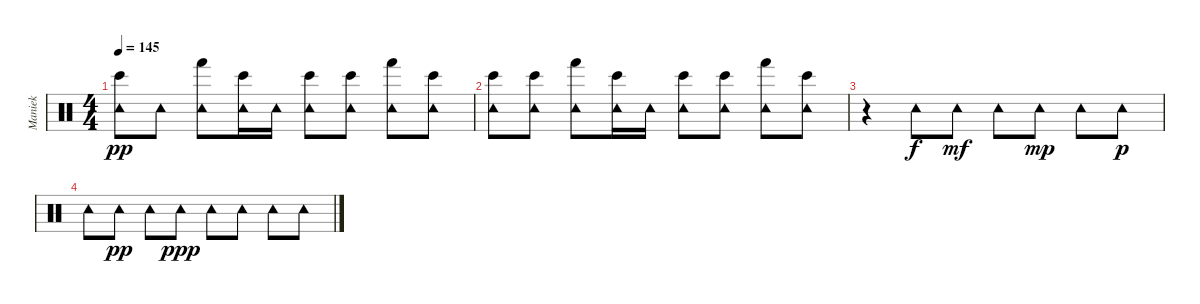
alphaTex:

\track ("Maniek" "Maniek") {instrument percussion}
\staff {score}
\articulation defaults
\ts (4 4)
\tempo 145
\clef neutral
\ks c
("Bongo High (hit)" "Tambourine (hit)").8{dy pp} "Tambourine (hit)".8 ("Hand (hit)" "Tambourine (hit)").8 ("Bongo High (hit)" "Tambourine (hit)").16 "Tambourine (hit)".16 ("Bongo High (hit)" "Tambourine (hit)").8 ("Bongo High (hit)" "Tambourine (hit)").8 ("Hand (hit)" "Tambourine (hit)").8 ("Bongo High (hit)" "Tambourine (hit)").8 |
("Bongo High (hit)" "Tambourine (hit)").8 ("Bongo High (hit)" "Tambourine (hit)").8 ("Hand (hit)" "Tambourine (hit)").8 ("Bongo High (hit)" "Tambourine (hit)").16 "Tambourine (hit)".16 ("Bongo High (hit)" "Tambourine (hit)").8 ("Bongo High (hit)" "Tambourine (hit)").8 ("Hand (hit)" "Tambourine (hit)").8 ("Bongo High (hit)" "Tambourine (hit)").8 |
r.4 "Tambourine (hit)".8{dy f} "Tambourine (hit)".8{dy mf} "Tambourine (hit)".8 "Tambourine (hit)".8{dy mp} "Tambourine (hit)".8 "Tambourine (hit)".8{dy p} |
"Tambourine (hit)".8 "Tambourine (hit)".8{dy pp} "Tambourine (hit)".8 "Tambourine (hit)".8{dy ppp} "Tambourine (hit)".8 "Tambourine (hit)".8 "Tambourine (hit)".8 "Tambourine (hit)".8
